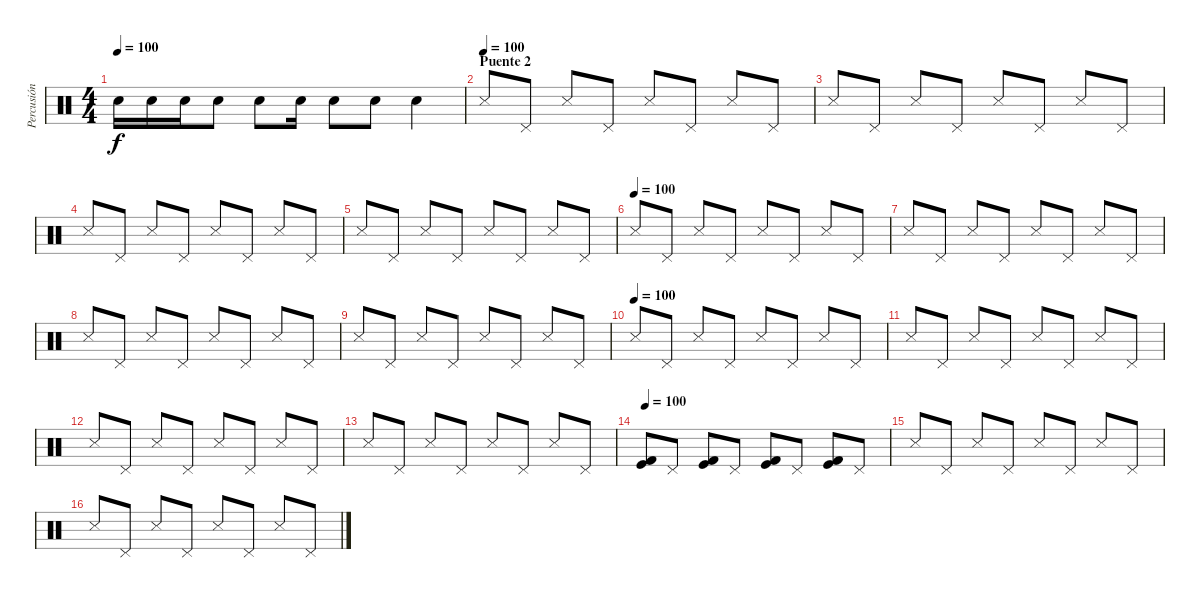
\track ("Percusión" "Percusión") {instrument percussion}
\staff {score}
\articulation defaults
\ts (4 4)
\tempo 100
\clef neutral
\ks c "Snare (hit) 2".16{dy f} "Snare (hit) 2".16 "Snare (hit) 2".16 "Snare (hit) 2".8 "Snare (hit) 2".8 "Snare (hit) 2".16 "Snare (hit) 2".8 "Snare (hit) 2".8 "Snare (hit) 2".4
|
\section ("" "Puente 2")
\tempo (100)
"Metronome (hit)".8 "Pedal Hi-Hat (hit)".8 "Metronome (hit)".8 "Pedal Hi-Hat (hit)".8 "Metronome (hit)".8 "Pedal Hi-Hat (hit)".8 "Metronome (hit)".8 "Pedal Hi-Hat (hit)".8 |
"Metronome (hit)".8 "Pedal Hi-Hat (hit)".8 "Metronome (hit)".8 "Pedal Hi-Hat (hit)".8 "Metronome (hit)".8 "Pedal Hi-Hat (hit)".8 "Metronome (hit)".8 "Pedal Hi-Hat (hit)".8 |
"Metronome (hit)".8 "Pedal Hi-Hat (hit)".8 "Metronome (hit)".8 "Pedal Hi-Hat (hit)".8 "Metronome (hit)".8 "Pedal Hi-Hat (hit)".8 "Metronome (hit)".8 "Pedal Hi-Hat (hit)".8 |
"Metronome (hit)".8 "Pedal Hi-Hat (hit)".8 "Metronome (hit)".8 "Pedal Hi-Hat (hit)".8 "Metronome (hit)".8 "Pedal Hi-Hat (hit)".8 "Metronome (hit)".8 "Pedal Hi-Hat (hit)".8 |
\tempo (100)
"Metronome (hit)".8 "Pedal Hi-Hat (hit)".8 "Metronome (hit)".8 "Pedal Hi-Hat (hit)".8 "Metronome (hit)".8 "Pedal Hi-Hat (hit)".8 "Metronome (hit)".8 "Pedal Hi-Hat (hit)".8 |
"Snare (side stick) 3".8 "Pedal Hi-Hat (hit)".8 "Snare (side stick) 3".8 "Pedal Hi-Hat (hit)".8 "Snare (side stick) 3".8 "Pedal Hi-Hat (hit)".8 "Snare (side stick) 3".8 "Pedal Hi-Hat (hit)".8 |
"Snare (side stick) 3".8 "Pedal Hi-Hat (hit)".8 "Snare (side stick) 3".8 "Pedal Hi-Hat (hit)".8 "Snare (side stick) 3".8 "Pedal Hi-Hat (hit)".8 "Snare (side stick) 3".8 "Pedal Hi-Hat (hit)".8 |
"Snare (side stick) 3".8 "Pedal Hi-Hat (hit)".8 "Snare (side stick) 3".8 "Pedal Hi-Hat (hit)".8 "Snare (side stick) 3".8 "Pedal Hi-Hat (hit)".8 "Snare (side stick) 3".8 "Pedal Hi-Hat (hit)".8 |
\tempo (100)
"Metronome (hit)".8 "Pedal Hi-Hat (hit)".8 "Metronome (hit)".8 "Pedal Hi-Hat (hit)".8 "Metronome (hit)".8 "Pedal Hi-Hat (hit)".8 "Metronome (hit)".8 "Pedal Hi-Hat (hit)".8 |
"Snare (side stick) 3".8 "Pedal Hi-Hat (hit)".8 "Snare (side stick) 3".8 "Pedal Hi-Hat (hit)".8 "Snare (side stick) 3".8 "Pedal Hi-Hat (hit)".8 "Snare (side stick) 3".8 "Pedal Hi-Hat (hit)".8 |
"Snare (side stick) 3".8 "Pedal Hi-Hat (hit)".8 "Snare (side stick) 3".8 "Pedal Hi-Hat (hit)".8 "Snare (side stick) 3".8 "Pedal Hi-Hat (hit)".8 "Snare (side stick) 3".8 "Pedal Hi-Hat (hit)".8 |
"Snare (side stick) 3".8 "Pedal Hi-Hat (hit)".8 "Snare (side stick) 3".8 "Pedal Hi-Hat (hit)".8 "Snare (side stick) 3".8 "Pedal Hi-Hat (hit)".8 "Snare (side stick) 3".8 "Pedal Hi-Hat (hit)".8 |
\tempo 100
("Kick (hit) 2" "Kick (hit)").8 "Pedal Hi-Hat (hit)".8 ("Kick (hit) 2" "Kick (hit)").8 "Pedal Hi-Hat (hit)".8 ("Kick (hit) 2" "Kick (hit)").8 "Pedal Hi-Hat (hit)".8 ("Kick (hit) 2" "Kick (hit)").8 "Pedal Hi-Hat (hit)".8 |
"Snare (side stick) 3".8 "Pedal Hi-Hat (hit)".8 "Snare (side stick) 3".8 "Pedal Hi-Hat (hit)".8 "Snare (side stick) 3".8 "Pedal Hi-Hat (hit)".8 "Snare (side stick) 3".8 "Pedal Hi-Hat (hit)".8 |
"Snare (side stick) 3".8 "Pedal Hi-Hat (hit)".8 "Snare (side stick) 3".8 "Pedal Hi-Hat (hit)".8 "Snare (side stick) 3".8 "Pedal Hi-Hat (hit)".8 "Snare (side stick) 3".8 "Pedal Hi-Hat (hit)".8
